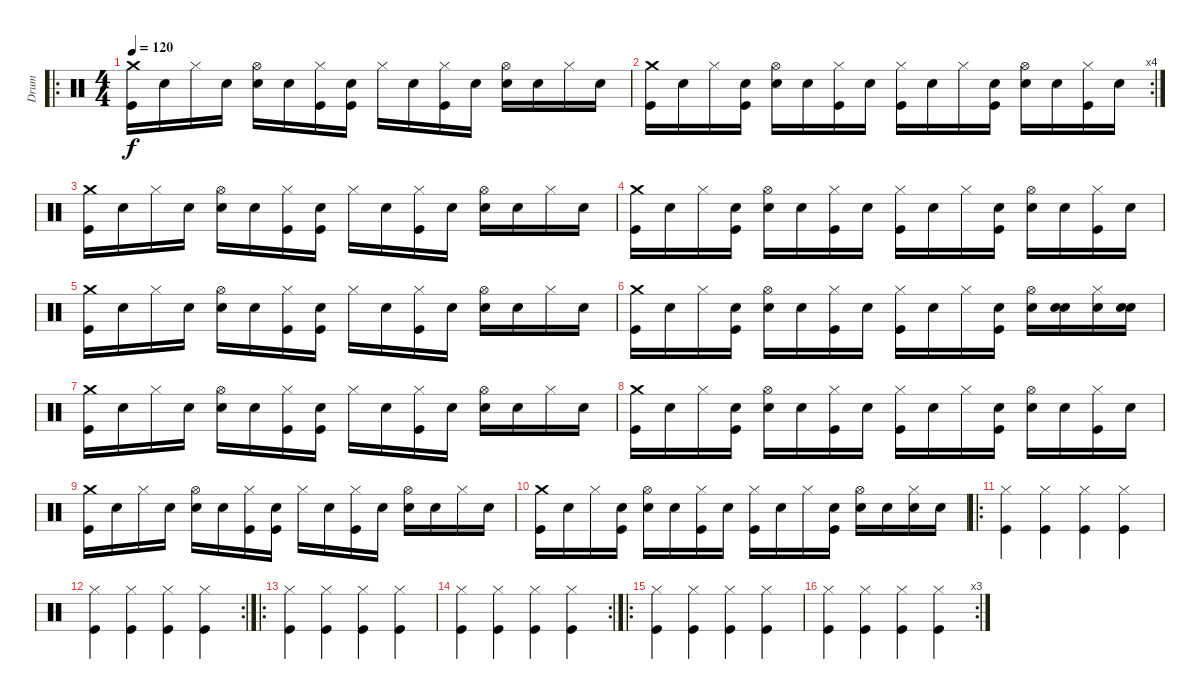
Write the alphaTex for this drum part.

\track ("Drum" "Drum") {instrument percussion}
\staff {score}
\articulation defaults
\ro
\ts (4 4)
\tempo 120
\clef neutral
\ks c
("Crash medium (hit)" "Kick (hit)").16{dy f} "Snare (hit)".16 "Hi-Hat (closed)".16 "Snare (hit)".16 ("Hi-Hat (open)" "Snare (hit) 2").16 "Snare (hit)".16 ("Hi-Hat (closed)" "Kick (hit)").16 ("Snare (hit)" "Kick (hit)").16 "Hi-Hat (closed)".16 "Snare (hit)".16 ("Hi-Hat (closed)" "Kick (hit)").16 "Snare (hit)".16 ("Hi-Hat (open)" "Snare (hit) 2").16 "Snare (hit)".16 "Hi-Hat (closed)".16 "Snare (hit)".16 |
\rc 4
("Crash medium (hit)" "Kick (hit)").16 "Snare (hit)".16 "Hi-Hat (closed)".16 ("Snare (hit)" "Kick (hit)").16 ("Hi-Hat (open)" "Snare (hit) 2").16 "Snare (hit)".16 ("Hi-Hat (closed)" "Kick (hit)").16 "Snare (hit)".16 ("Hi-Hat (closed)" "Kick (hit)").16 "Snare (hit)".16 "Hi-Hat (closed)".16 ("Snare (hit)" "Kick (hit)").16 ("Hi-Hat (open)" "Snare (hit) 2").16 "Snare (hit)".16 ("Hi-Hat (closed)" "Kick (hit)").16 "Snare (hit)".16 |
("Crash medium (hit)" "Kick (hit)").16 "Snare (hit)".16 "Hi-Hat (closed)".16 "Snare (hit)".16 ("Hi-Hat (open)" "Snare (hit) 2").16 "Snare (hit)".16 ("Hi-Hat (closed)" "Kick (hit)").16 ("Snare (hit)" "Kick (hit)").16 "Hi-Hat (closed)".16 "Snare (hit)".16 ("Hi-Hat (closed)" "Kick (hit)").16 "Snare (hit)".16 ("Hi-Hat (open)" "Snare (hit) 2").16 "Snare (hit)".16 "Hi-Hat (closed)".16 "Snare (hit)".16 |
("Crash medium (hit)" "Kick (hit)").16 "Snare (hit)".16 "Hi-Hat (closed)".16 ("Snare (hit)" "Kick (hit)").16 ("Hi-Hat (open)" "Snare (hit) 2").16 "Snare (hit)".16 ("Hi-Hat (closed)" "Kick (hit)").16 "Snare (hit)".16 ("Hi-Hat (closed)" "Kick (hit)").16 "Snare (hit)".16 "Hi-Hat (closed)".16 ("Snare (hit)" "Kick (hit)").16 ("Hi-Hat (open)" "Snare (hit) 2").16 "Snare (hit)".16 ("Hi-Hat (closed)" "Kick (hit)").16 "Snare (hit)".16 |
("Crash medium (hit)" "Kick (hit)").16 "Snare (hit)".16 "Hi-Hat (closed)".16 "Snare (hit)".16 ("Hi-Hat (open)" "Snare (hit) 2").16 "Snare (hit)".16 ("Hi-Hat (closed)" "Kick (hit)").16 ("Snare (hit)" "Kick (hit)").16 "Hi-Hat (closed)".16 "Snare (hit)".16 ("Hi-Hat (closed)" "Kick (hit)").16 "Snare (hit)".16 ("Hi-Hat (open)" "Snare (hit) 2").16 "Snare (hit)".16 "Hi-Hat (closed)".16 "Snare (hit)".16 |
("Crash medium (hit)" "Kick (hit)").16 "Snare (hit)".16 "Hi-Hat (closed)".16 ("Snare (hit)" "Kick (hit)").16 ("Hi-Hat (open)" "Snare (hit) 2").16 "Snare (hit)".16 ("Hi-Hat (closed)" "Kick (hit)").16 "Snare (hit)".16 ("Hi-Hat (closed)" "Kick (hit)").16 "Snare (hit)".16 "Hi-Hat (closed)".16 ("Snare (hit)" "Kick (hit)").16 ("Hi-Hat (open)" "Snare (hit) 2").16 ("Snare (hit)" "Snare (hit) 2").16 ("Hi-Hat (closed)" "Snare (hit) 2").16 ("Snare (hit)" "Snare (hit) 2").16 |
("Crash medium (hit)" "Kick (hit)").16 "Snare (hit)".16 "Hi-Hat (closed)".16 "Snare (hit)".16 ("Hi-Hat (open)" "Snare (hit) 2").16 "Snare (hit)".16 ("Hi-Hat (closed)" "Kick (hit)").16 ("Snare (hit)" "Kick (hit)").16 "Hi-Hat (closed)".16 "Snare (hit)".16 ("Hi-Hat (closed)" "Kick (hit)").16 "Snare (hit)".16 ("Hi-Hat (open)" "Snare (hit) 2").16 "Snare (hit)".16 "Hi-Hat (closed)".16 "Snare (hit)".16 |
("Crash medium (hit)" "Kick (hit)").16 "Snare (hit)".16 "Hi-Hat (closed)".16 ("Snare (hit)" "Kick (hit)").16 ("Hi-Hat (open)" "Snare (hit) 2").16 "Snare (hit)".16 ("Hi-Hat (closed)" "Kick (hit)").16 "Snare (hit)".16 ("Hi-Hat (closed)" "Kick (hit)").16 "Snare (hit)".16 "Hi-Hat (closed)".16 ("Snare (hit)" "Kick (hit)").16 ("Hi-Hat (open)" "Snare (hit) 2").16 "Snare (hit)".16 ("Hi-Hat (closed)" "Kick (hit)").16 "Snare (hit)".16 |
("Crash medium (hit)" "Kick (hit)").16 "Snare (hit)".16 "Hi-Hat (closed)".16 "Snare (hit)".16 ("Hi-Hat (open)" "Snare (hit) 2").16 "Snare (hit)".16 ("Hi-Hat (closed)" "Kick (hit)").16 ("Snare (hit)" "Kick (hit)").16 "Hi-Hat (closed)".16 "Snare (hit)".16 ("Hi-Hat (closed)" "Kick (hit)").16 "Snare (hit)".16 ("Hi-Hat (open)" "Snare (hit) 2").16 "Snare (hit)".16 "Hi-Hat (closed)".16 "Snare (hit)".16 |
("Crash medium (hit)" "Kick (hit)").16 "Snare (hit)".16 "Hi-Hat (closed)".16 ("Snare (hit)" "Kick (hit)").16 ("Hi-Hat (open)" "Snare (hit) 2").16 "Snare (hit)".16 ("Hi-Hat (closed)" "Kick (hit)").16 "Snare (hit)".16 ("Hi-Hat (closed)" "Kick (hit)").16 "Snare (hit)".16 "Hi-Hat (closed)".16 ("Snare (hit)" "Kick (hit)").16 ("Hi-Hat (open)" "Snare (hit) 2").16 "Snare (hit)".16 ("Hi-Hat (closed)" "Snare (hit) 2").16 "Snare (hit)".16 |
\ro
("Hi-Hat (closed)" "Kick (hit)").4 ("Hi-Hat (closed)" "Kick (hit)").4 ("Hi-Hat (closed)" "Kick (hit)").4 ("Hi-Hat (closed)" "Kick (hit)").4 |
\rc 2
("Hi-Hat (closed)" "Kick (hit)").4 ("Hi-Hat (closed)" "Kick (hit)").4 ("Hi-Hat (closed)" "Kick (hit)").4 ("Hi-Hat (closed)" "Kick (hit)").4 |
\ro
("Hi-Hat (closed)" "Kick (hit)").4 ("Hi-Hat (closed)" "Kick (hit)").4 ("Hi-Hat (closed)" "Kick (hit)").4 ("Hi-Hat (closed)" "Kick (hit)").4 |
\rc 2
("Hi-Hat (closed)" "Kick (hit)").4 ("Hi-Hat (closed)" "Kick (hit)").4 ("Hi-Hat (closed)" "Kick (hit)").4 ("Hi-Hat (closed)" "Kick (hit)").4 |
\ro
("Hi-Hat (closed)" "Kick (hit)").4 ("Hi-Hat (closed)" "Kick (hit)").4 ("Hi-Hat (closed)" "Kick (hit)").4 ("Hi-Hat (closed)" "Kick (hit)").4 |
\rc 3
("Hi-Hat (closed)" "Kick (hit)").4 ("Hi-Hat (closed)" "Kick (hit)").4 ("Hi-Hat (closed)" "Kick (hit)").4 ("Hi-Hat (closed)" "Kick (hit)").4
